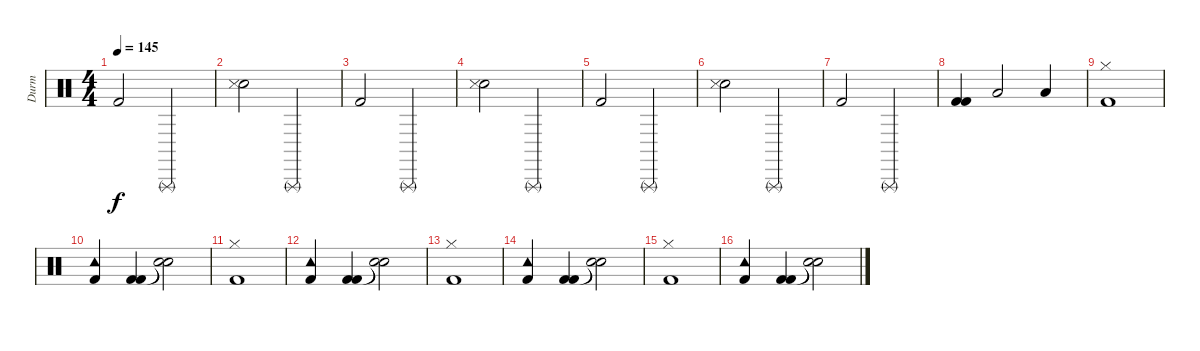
\track ("Durm" "Durm") {instrument percussion}
\staff {score}
\articulation defaults
\ts (4 4)
\tempo 145
\clef neutral
\ks c "Kick (hit) 2".2{dy f} "Triangle (rnute)".2
|
("Hand Clap (hit)" "Snare (side stick) 3").2 "Triangle (rnute)".2 |
"Kick (hit) 2".2 "Triangle (rnute)".2 |
("Hand Clap (hit)" "Snare (side stick) 3").2 "Triangle (rnute)".2 |
"Kick (hit) 2".2 "Triangle (rnute)".2 |
("Hand Clap (hit)" "Snare (side stick) 3").2 "Triangle (rnute)".2 |
"Kick (hit) 2".2 "Triangle (rnute)".2 |
("Kick (hit) 2" "Kick (hit) 2").4 "Low Floor Tom (hit)".2 "Low Floor Tom (hit)".4 |
("Kick (hit) 2" "Hi-Hat (closed)").1 |
("Kick (hit) 2" "Tambourine (hit)").4 ("Kick (hit) 2" "Kick (hit) 2").4 ("Snare (hit)"{t} "Snare (hit)"{t}).2 |
("Kick (hit) 2" "Hi-Hat (closed)").1 |
("Kick (hit) 2" "Tambourine (hit)").4 ("Kick (hit) 2" "Kick (hit) 2").4 ("Snare (hit)"{t} "Snare (hit)"{t}).2 |
("Kick (hit) 2" "Hi-Hat (closed)").1 |
("Kick (hit) 2" "Tambourine (hit)").4 ("Kick (hit) 2" "Kick (hit) 2").4 ("Snare (hit)"{t} "Snare (hit)"{t}).2 |
("Kick (hit) 2" "Hi-Hat (closed)").1 |
("Kick (hit) 2" "Tambourine (hit)").4 ("Kick (hit) 2" "Kick (hit) 2").4 ("Snare (hit)"{t} "Snare (hit)"{t}).2
